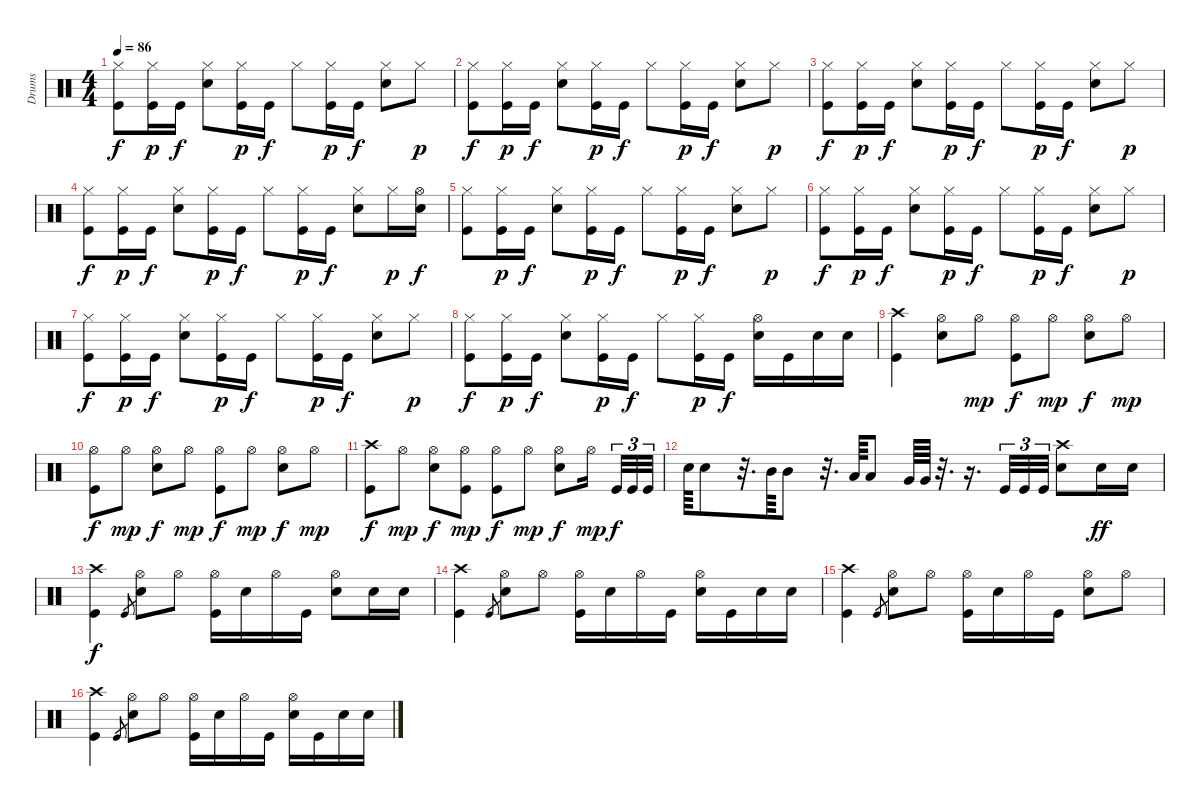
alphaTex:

\track ("Drums" "Drums") {instrument percussion}
\staff {score}
\articulation defaults
\ts (4 4)
\tempo 86
\clef neutral
\ks c
("Hi-Hat (closed)" "Kick (hit)").8{dy f} ("Hi-Hat (closed)" "Kick (hit)").16{dy p} "Kick (hit)".16{dy f} ("Hi-Hat (closed)" "Snare (hit) 2").8 ("Hi-Hat (closed)" "Kick (hit)").16{dy p} "Kick (hit)".16{dy f} "Hi-Hat (closed)".8 ("Hi-Hat (closed)" "Kick (hit)").16{dy p} "Kick (hit)".16{dy f} ("Hi-Hat (closed)" "Snare (hit) 2").8 "Hi-Hat (closed)".8{dy p} |
("Hi-Hat (closed)" "Kick (hit)").8{dy f} ("Hi-Hat (closed)" "Kick (hit)").16{dy p} "Kick (hit)".16{dy f} ("Hi-Hat (closed)" "Snare (hit) 2").8 ("Hi-Hat (closed)" "Kick (hit)").16{dy p} "Kick (hit)".16{dy f} "Hi-Hat (closed)".8 ("Hi-Hat (closed)" "Kick (hit)").16{dy p} "Kick (hit)".16{dy f} ("Hi-Hat (closed)" "Snare (hit) 2").8 "Hi-Hat (closed)".8{dy p} |
("Hi-Hat (closed)" "Kick (hit)").8{dy f} ("Hi-Hat (closed)" "Kick (hit)").16{dy p} "Kick (hit)".16{dy f} ("Hi-Hat (closed)" "Snare (hit) 2").8 ("Hi-Hat (closed)" "Kick (hit)").16{dy p} "Kick (hit)".16{dy f} "Hi-Hat (closed)".8 ("Hi-Hat (closed)" "Kick (hit)").16{dy p} "Kick (hit)".16{dy f} ("Hi-Hat (closed)" "Snare (hit) 2").8 "Hi-Hat (closed)".8{dy p} |
("Hi-Hat (closed)" "Kick (hit)").8{dy f} ("Hi-Hat (closed)" "Kick (hit)").16{dy p} "Kick (hit)".16{dy f} ("Hi-Hat (closed)" "Snare (hit) 2").8 ("Hi-Hat (closed)" "Kick (hit)").16{dy p} "Kick (hit)".16{dy f} "Hi-Hat (closed)".8 ("Hi-Hat (closed)" "Kick (hit)").16{dy p} "Kick (hit)".16{dy f} ("Hi-Hat (closed)" "Snare (hit) 2").8 "Hi-Hat (closed)".16{dy p} ("Hi-Hat (open)" "Snare (hit) 2").16{dy f} |
("Hi-Hat (closed)" "Kick (hit)").8 ("Hi-Hat (closed)" "Kick (hit)").16{dy p} "Kick (hit)".16{dy f} ("Hi-Hat (closed)" "Snare (hit) 2").8 ("Hi-Hat (closed)" "Kick (hit)").16{dy p} "Kick (hit)".16{dy f} "Hi-Hat (closed)".8 ("Hi-Hat (closed)" "Kick (hit)").16{dy p} "Kick (hit)".16{dy f} ("Hi-Hat (closed)" "Snare (hit) 2").8 "Hi-Hat (closed)".8{dy p} |
("Hi-Hat (closed)" "Kick (hit)").8{dy f} ("Hi-Hat (closed)" "Kick (hit)").16{dy p} "Kick (hit)".16{dy f} ("Hi-Hat (closed)" "Snare (hit) 2").8 ("Hi-Hat (closed)" "Kick (hit)").16{dy p} "Kick (hit)".16{dy f} "Hi-Hat (closed)".8 ("Hi-Hat (closed)" "Kick (hit)").16{dy p} "Kick (hit)".16{dy f} ("Hi-Hat (closed)" "Snare (hit) 2").8 "Hi-Hat (closed)".8{dy p} |
("Hi-Hat (closed)" "Kick (hit)").8{dy f} ("Hi-Hat (closed)" "Kick (hit)").16{dy p} "Kick (hit)".16{dy f} ("Hi-Hat (closed)" "Snare (hit) 2").8 ("Hi-Hat (closed)" "Kick (hit)").16{dy p} "Kick (hit)".16{dy f} "Hi-Hat (closed)".8 ("Hi-Hat (closed)" "Kick (hit)").16{dy p} "Kick (hit)".16{dy f} ("Hi-Hat (closed)" "Snare (hit) 2").8 "Hi-Hat (closed)".8{dy p} |
("Hi-Hat (closed)" "Kick (hit)").8{dy f} ("Hi-Hat (closed)" "Kick (hit)").16{dy p} "Kick (hit)".16{dy f} ("Hi-Hat (closed)" "Snare (hit) 2").8 ("Hi-Hat (closed)" "Kick (hit)").16{dy p} "Kick (hit)".16{dy f} "Hi-Hat (closed)".8 ("Hi-Hat (closed)" "Kick (hit)").16{dy p} "Kick (hit)".16{dy f} ("Hi-Hat (open)" "Snare (hit) 2").16 "Kick (hit)".16 "Snare (hit) 2".16 "Snare (hit) 2".16 |
("Crash high (hit)" "Kick (hit)").4 ("Hi-Hat (open)" "Snare (hit) 2").8 "Hi-Hat (open)".8{dy mp} ("Hi-Hat (open)" "Kick (hit)").8{dy f} "Hi-Hat (open)".8{dy mp} ("Hi-Hat (open)" "Snare (hit) 2").8{dy f} "Hi-Hat (open)".8{dy mp} |
("Hi-Hat (open)" "Kick (hit)").8{dy f} "Hi-Hat (open)".8{dy mp} ("Hi-Hat (open)" "Snare (hit) 2").8{dy f} "Hi-Hat (open)".8{dy mp} ("Hi-Hat (open)" "Kick (hit)").8{dy f} "Hi-Hat (open)".8{dy mp} ("Hi-Hat (open)" "Snare (hit) 2").8{dy f} "Hi-Hat (open)".8{dy mp} |
("Crash high (hit)" "Kick (hit)").8{dy f} "Hi-Hat (open)".8{dy mp} ("Hi-Hat (open)" "Snare (hit) 2").8{dy f} ("Hi-Hat (open)" "Kick (hit)").8{dy mp} ("Hi-Hat (open)" "Kick (hit)").8{dy f} "Hi-Hat (open)".8{dy mp} ("Hi-Hat (open)" "Snare (hit) 2").8{dy f} "Hi-Hat (open)".16{dy mp} "Kick (hit)".32{tu (3 2) dy f} "Kick (hit)".32{tu (3 2)} "Kick (hit)".32{tu (3 2)} |
"Snare (hit) 2".64 "Snare (hit) 2".8 r.32{d} "Mid Tom (hit)".64 "Mid Tom (hit)".8 r.32{d} "Low Tom (hit)".64 "Low Tom (hit)".8 "Very Low Tom (hit)".64 "Very Low Tom (hit)".64 r.32{d} r.16{d} "Kick (hit)".32{tu (3 2)} "Kick (hit)".32{tu (3 2)} "Kick (hit)".32{tu (3 2)} ("Crash high (hit)" "Snare (hit) 2").8 "Snare (hit) 2".16{dy ff} "Snare (hit) 2".16 |
("Crash high (hit)" "Kick (hit)").4{dy f} "Kick (hit)".8{gr} ("Hi-Hat (open)" "Snare (hit) 2").8 "Hi-Hat (open)".8 ("Hi-Hat (open)" "Kick (hit)").16 "Snare (hit) 2".16 "Hi-Hat (open)".16 "Kick (hit)".16 ("Hi-Hat (open)" "Snare (hit) 2").8 "Snare (hit) 2".16 "Snare (hit) 2".16 |
("Crash high (hit)" "Kick (hit)").4 "Kick (hit)".8{gr} ("Hi-Hat (open)" "Snare (hit) 2").8 "Hi-Hat (open)".8 ("Hi-Hat (open)" "Kick (hit)").16 "Snare (hit) 2".16 "Hi-Hat (open)".16 "Kick (hit)".16 ("Hi-Hat (open)" "Snare (hit) 2").16 "Kick (hit)".16 "Snare (hit) 2".16 "Snare (hit) 2".16 |
("Crash high (hit)" "Kick (hit)").4 "Kick (hit)".8{gr} ("Hi-Hat (open)" "Snare (hit) 2").8 "Hi-Hat (open)".8 ("Hi-Hat (open)" "Kick (hit)").16 "Snare (hit) 2".16 "Hi-Hat (open)".16 "Kick (hit)".16 ("Hi-Hat (open)" "Snare (hit) 2").8 "Hi-Hat (open)".8 |
("Crash high (hit)" "Kick (hit)").4 "Kick (hit)".8{gr} ("Hi-Hat (open)" "Snare (hit) 2").8 "Hi-Hat (open)".8 ("Hi-Hat (open)" "Kick (hit)").16 "Snare (hit) 2".16 "Hi-Hat (open)".16 "Kick (hit)".16 ("Hi-Hat (open)" "Snare (hit) 2").16 "Kick (hit)".16 "Snare (hit) 2".16 "Snare (hit) 2".16
